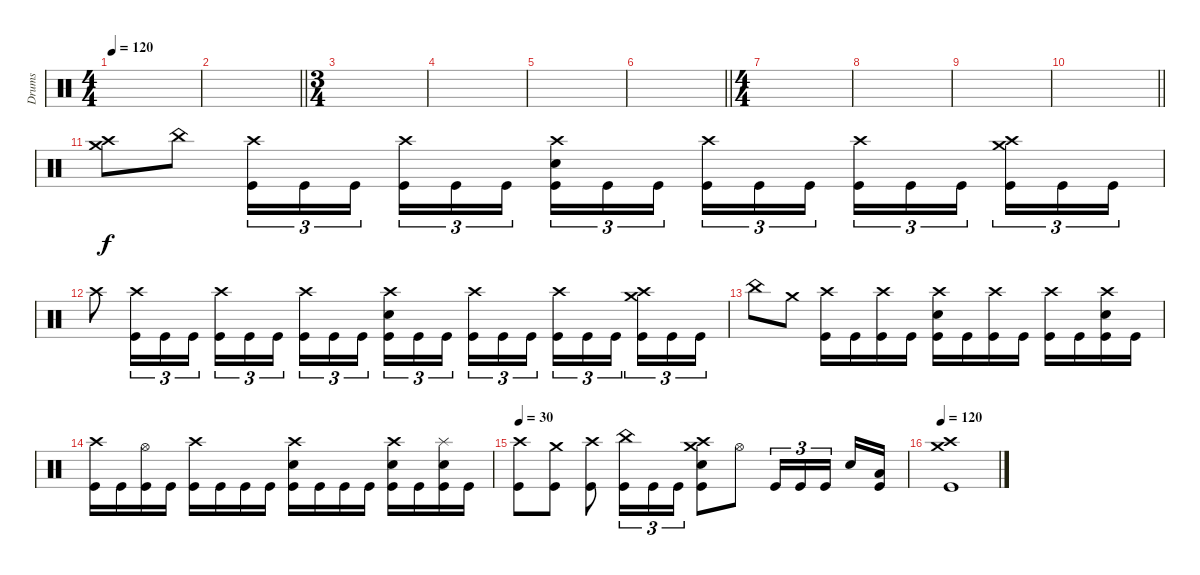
\track ("Drums" "Drums") {instrument percussion}
\staff
\articulation defaults
\ts (4 4)
\tempo 120
\clef neutral
\ks c
|
\barLineRight lightlight
|
\ts (3 4)
|
|
|
\barLineRight lightlight
|
\ts (4 4)
|
|
|
\barLineRight lightlight
|
("Crash high (hit)" "Crash medium (hit)").8 "China (hit)".8 ("Crash high (hit)" "Kick (hit)").16{tu (3 2)} "Kick (hit)".16{tu (3 2)} "Kick (hit)".16{tu (3 2) beam splitsecondary} ("Crash high (hit)" "Kick (hit)").16{tu (3 2)} "Kick (hit)".16{tu (3 2)} "Kick (hit)".16{tu (3 2)} ("Crash high (hit)" "Electric Snare (hit)" "Kick (hit)").16{tu (3 2)} "Kick (hit)".16{tu (3 2)} "Kick (hit)".16{tu (3 2) beam splitsecondary} ("Crash high (hit)" "Kick (hit)").16{tu (3 2)} "Kick (hit)".16{tu (3 2)} "Kick (hit)".16{tu (3 2)} ("Crash high (hit)" "Kick (hit)").16{tu (3 2)} "Kick (hit)".16{tu (3 2)} "Kick (hit)".16{tu (3 2) beam splitsecondary} ("Crash high (hit)" "Crash medium (hit)" "Kick (hit)").16{tu (3 2)} "Kick (hit)".16{tu (3 2)} "Kick (hit)".16{tu (3 2)} |
"Crash high (hit)".8 ("Crash high (hit)" "Kick (hit)").16{tu (3 2)} "Kick (hit)".16{tu (3 2)} "Kick (hit)".16{tu (3 2)} ("Crash high (hit)" "Kick (hit)").16{tu (3 2)} "Kick (hit)".16{tu (3 2)} "Kick (hit)".16{tu (3 2) beam splitsecondary} ("Crash high (hit)" "Kick (hit)").16{tu (3 2)} "Kick (hit)".16{tu (3 2)} "Kick (hit)".16{tu (3 2)} ("Crash high (hit)" "Electric Snare (hit)" "Kick (hit)").16{tu (3 2)} "Kick (hit)".16{tu (3 2)} "Kick (hit)".16{tu (3 2) beam splitsecondary} ("Crash high (hit)" "Kick (hit)").16{tu (3 2)} "Kick (hit)".16{tu (3 2)} "Kick (hit)".16{tu (3 2)} ("Crash high (hit)" "Kick (hit)").16{tu (3 2)} "Kick (hit)".16{tu (3 2)} "Kick (hit)".16{tu (3 2) beam splitsecondary} ("Crash high (hit)" "Crash medium (hit)" "Kick (hit)").16{tu (3 2)} "Kick (hit)".16{tu (3 2)} "Kick (hit)".16{tu (3 2)} |
"China (hit)".8 "Crash medium (hit)".8 ("Crash high (hit)" "Kick (hit)").16 "Kick (hit)".16 ("Crash high (hit)" "Kick (hit)").16 "Kick (hit)".16 ("Crash high (hit)" "Electric Snare (hit)" "Kick (hit)").16 "Kick (hit)".16 ("Crash high (hit)" "Kick (hit)").16 "Kick (hit)".16 ("Crash high (hit)" "Kick (hit)").16 "Kick (hit)".16 ("Crash high (hit)" "Electric Snare (hit)" "Kick (hit)").16 "Kick (hit)".16 |
("Crash high (hit)" "Kick (hit)").16 "Kick (hit)".16 ("Hi-Hat (open)" "Kick (hit)").16 "Kick (hit)".16 ("Crash high (hit)" "Kick (hit)").16 "Kick (hit)".16 "Kick (hit)".16 "Kick (hit)".16 ("Crash high (hit)" "Electric Snare (hit)" "Kick (hit)").16 "Kick (hit)".16 "Kick (hit)".16 "Kick (hit)".16 ("Crash high (hit)" "Electric Snare (hit)" "Kick (hit)").16 "Kick (hit)".16 ("Splash (hit)" "Electric Snare (hit)" "Kick (hit)").16 "Kick (hit)".16 |
\tempo 30
("Crash high (hit)" "Kick (hit)").8 ("Crash medium (hit)" "Kick (hit)").8 ("Crash high (hit)" "Kick (hit)").8 ("China (hit)" "Kick (hit)").16{tu (3 2)} "Kick (hit)".16{tu (3 2)} "Kick (hit)".16{tu (3 2)} ("Crash high (hit)" "Crash medium (hit)" "Electric Snare (hit)" "Kick (hit)").8 "Hi-Hat (open)".8 "Kick (hit)".16{tu (3 2)} "Kick (hit)".16{tu (3 2)} "Kick (hit)".16{tu (3 2) beam splitsecondary} "Electric Snare (hit)".16 ("Low Floor Tom (hit)" "Kick (hit)").16 |
\tempo 120
("Crash high (hit)" "Crash medium (hit)" "Kick (hit)").1
